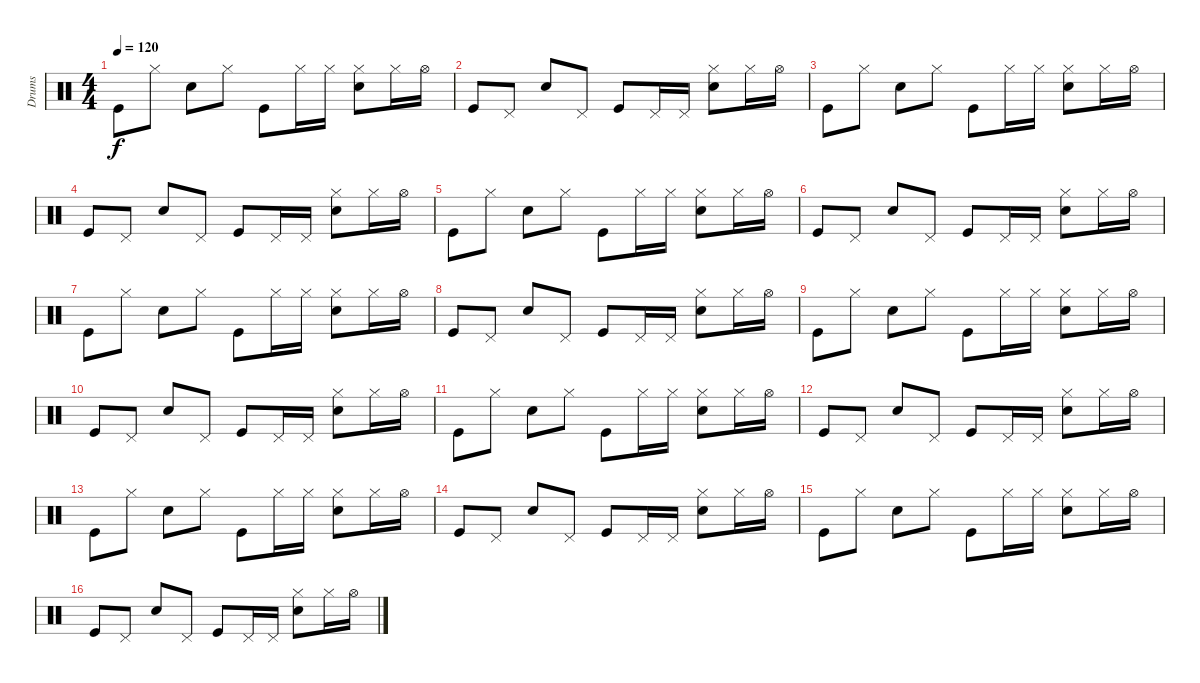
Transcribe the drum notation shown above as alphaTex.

\track ("Drums" "Drums") {instrument percussion}
\staff {score}
\articulation defaults
\ts (4 4)
\tempo 120
\clef neutral
\ks c "Kick (hit)".8{dy f} "Hi-Hat (closed)".8 "Snare (hit) 2".8 "Hi-Hat (closed)".8 "Kick (hit)".8 "Hi-Hat (closed)".16 "Hi-Hat (closed)".16
("Hi-Hat (closed)" "Snare (hit) 2").8 "Hi-Hat (closed)".16 "Hi-Hat (open)".16 |
"Kick (hit)".8 "Pedal Hi-Hat (hit)".8 "Snare (hit) 2".8 "Pedal Hi-Hat (hit)".8 "Kick (hit)".8 "Pedal Hi-Hat (hit)".16 "Pedal Hi-Hat (hit)".16 ("Hi-Hat (closed)" "Snare (hit) 2").8 "Hi-Hat (closed)".16 "Hi-Hat (open)".16 |
"Kick (hit)".8 "Hi-Hat (closed)".8 "Snare (hit) 2".8 "Hi-Hat (closed)".8 "Kick (hit)".8 "Hi-Hat (closed)".16 "Hi-Hat (closed)".16 ("Hi-Hat (closed)" "Snare (hit) 2").8 "Hi-Hat (closed)".16 "Hi-Hat (open)".16 |
"Kick (hit)".8 "Pedal Hi-Hat (hit)".8 "Snare (hit) 2".8 "Pedal Hi-Hat (hit)".8 "Kick (hit)".8 "Pedal Hi-Hat (hit)".16 "Pedal Hi-Hat (hit)".16 ("Hi-Hat (closed)" "Snare (hit) 2").8 "Hi-Hat (closed)".16 "Hi-Hat (open)".16 |
"Kick (hit)".8 "Hi-Hat (closed)".8 "Snare (hit) 2".8 "Hi-Hat (closed)".8 "Kick (hit)".8 "Hi-Hat (closed)".16 "Hi-Hat (closed)".16 ("Hi-Hat (closed)" "Snare (hit) 2").8 "Hi-Hat (closed)".16 "Hi-Hat (open)".16 |
"Kick (hit)".8 "Pedal Hi-Hat (hit)".8 "Snare (hit) 2".8 "Pedal Hi-Hat (hit)".8 "Kick (hit)".8 "Pedal Hi-Hat (hit)".16 "Pedal Hi-Hat (hit)".16 ("Hi-Hat (closed)" "Snare (hit) 2").8 "Hi-Hat (closed)".16 "Hi-Hat (open)".16 |
"Kick (hit)".8 "Hi-Hat (closed)".8 "Snare (hit) 2".8 "Hi-Hat (closed)".8 "Kick (hit)".8 "Hi-Hat (closed)".16 "Hi-Hat (closed)".16 ("Hi-Hat (closed)" "Snare (hit) 2").8 "Hi-Hat (closed)".16 "Hi-Hat (open)".16 |
"Kick (hit)".8 "Pedal Hi-Hat (hit)".8 "Snare (hit) 2".8 "Pedal Hi-Hat (hit)".8 "Kick (hit)".8 "Pedal Hi-Hat (hit)".16 "Pedal Hi-Hat (hit)".16 ("Hi-Hat (closed)" "Snare (hit) 2").8 "Hi-Hat (closed)".16 "Hi-Hat (open)".16 |
"Kick (hit)".8 "Hi-Hat (closed)".8 "Snare (hit) 2".8 "Hi-Hat (closed)".8 "Kick (hit)".8 "Hi-Hat (closed)".16 "Hi-Hat (closed)".16 ("Hi-Hat (closed)" "Snare (hit) 2").8 "Hi-Hat (closed)".16 "Hi-Hat (open)".16 |
"Kick (hit)".8 "Pedal Hi-Hat (hit)".8 "Snare (hit) 2".8 "Pedal Hi-Hat (hit)".8 "Kick (hit)".8 "Pedal Hi-Hat (hit)".16 "Pedal Hi-Hat (hit)".16 ("Hi-Hat (closed)" "Snare (hit) 2").8 "Hi-Hat (closed)".16 "Hi-Hat (open)".16 |
"Kick (hit)".8 "Hi-Hat (closed)".8 "Snare (hit) 2".8 "Hi-Hat (closed)".8 "Kick (hit)".8 "Hi-Hat (closed)".16 "Hi-Hat (closed)".16 ("Hi-Hat (closed)" "Snare (hit) 2").8 "Hi-Hat (closed)".16 "Hi-Hat (open)".16 |
"Kick (hit)".8 "Pedal Hi-Hat (hit)".8 "Snare (hit) 2".8 "Pedal Hi-Hat (hit)".8 "Kick (hit)".8 "Pedal Hi-Hat (hit)".16 "Pedal Hi-Hat (hit)".16 ("Hi-Hat (closed)" "Snare (hit) 2").8 "Hi-Hat (closed)".16 "Hi-Hat (open)".16 |
"Kick (hit)".8 "Hi-Hat (closed)".8 "Snare (hit) 2".8 "Hi-Hat (closed)".8 "Kick (hit)".8 "Hi-Hat (closed)".16 "Hi-Hat (closed)".16 ("Hi-Hat (closed)" "Snare (hit) 2").8 "Hi-Hat (closed)".16 "Hi-Hat (open)".16 |
"Kick (hit)".8 "Pedal Hi-Hat (hit)".8 "Snare (hit) 2".8 "Pedal Hi-Hat (hit)".8 "Kick (hit)".8 "Pedal Hi-Hat (hit)".16 "Pedal Hi-Hat (hit)".16 ("Hi-Hat (closed)" "Snare (hit) 2").8 "Hi-Hat (closed)".16 "Hi-Hat (open)".16 |
"Kick (hit)".8 "Hi-Hat (closed)".8 "Snare (hit) 2".8 "Hi-Hat (closed)".8 "Kick (hit)".8 "Hi-Hat (closed)".16 "Hi-Hat (closed)".16 ("Hi-Hat (closed)" "Snare (hit) 2").8 "Hi-Hat (closed)".16 "Hi-Hat (open)".16 |
"Kick (hit)".8 "Pedal Hi-Hat (hit)".8 "Snare (hit) 2".8 "Pedal Hi-Hat (hit)".8 "Kick (hit)".8 "Pedal Hi-Hat (hit)".16 "Pedal Hi-Hat (hit)".16 ("Hi-Hat (closed)" "Snare (hit) 2").8 "Hi-Hat (closed)".16 "Hi-Hat (open)".16
